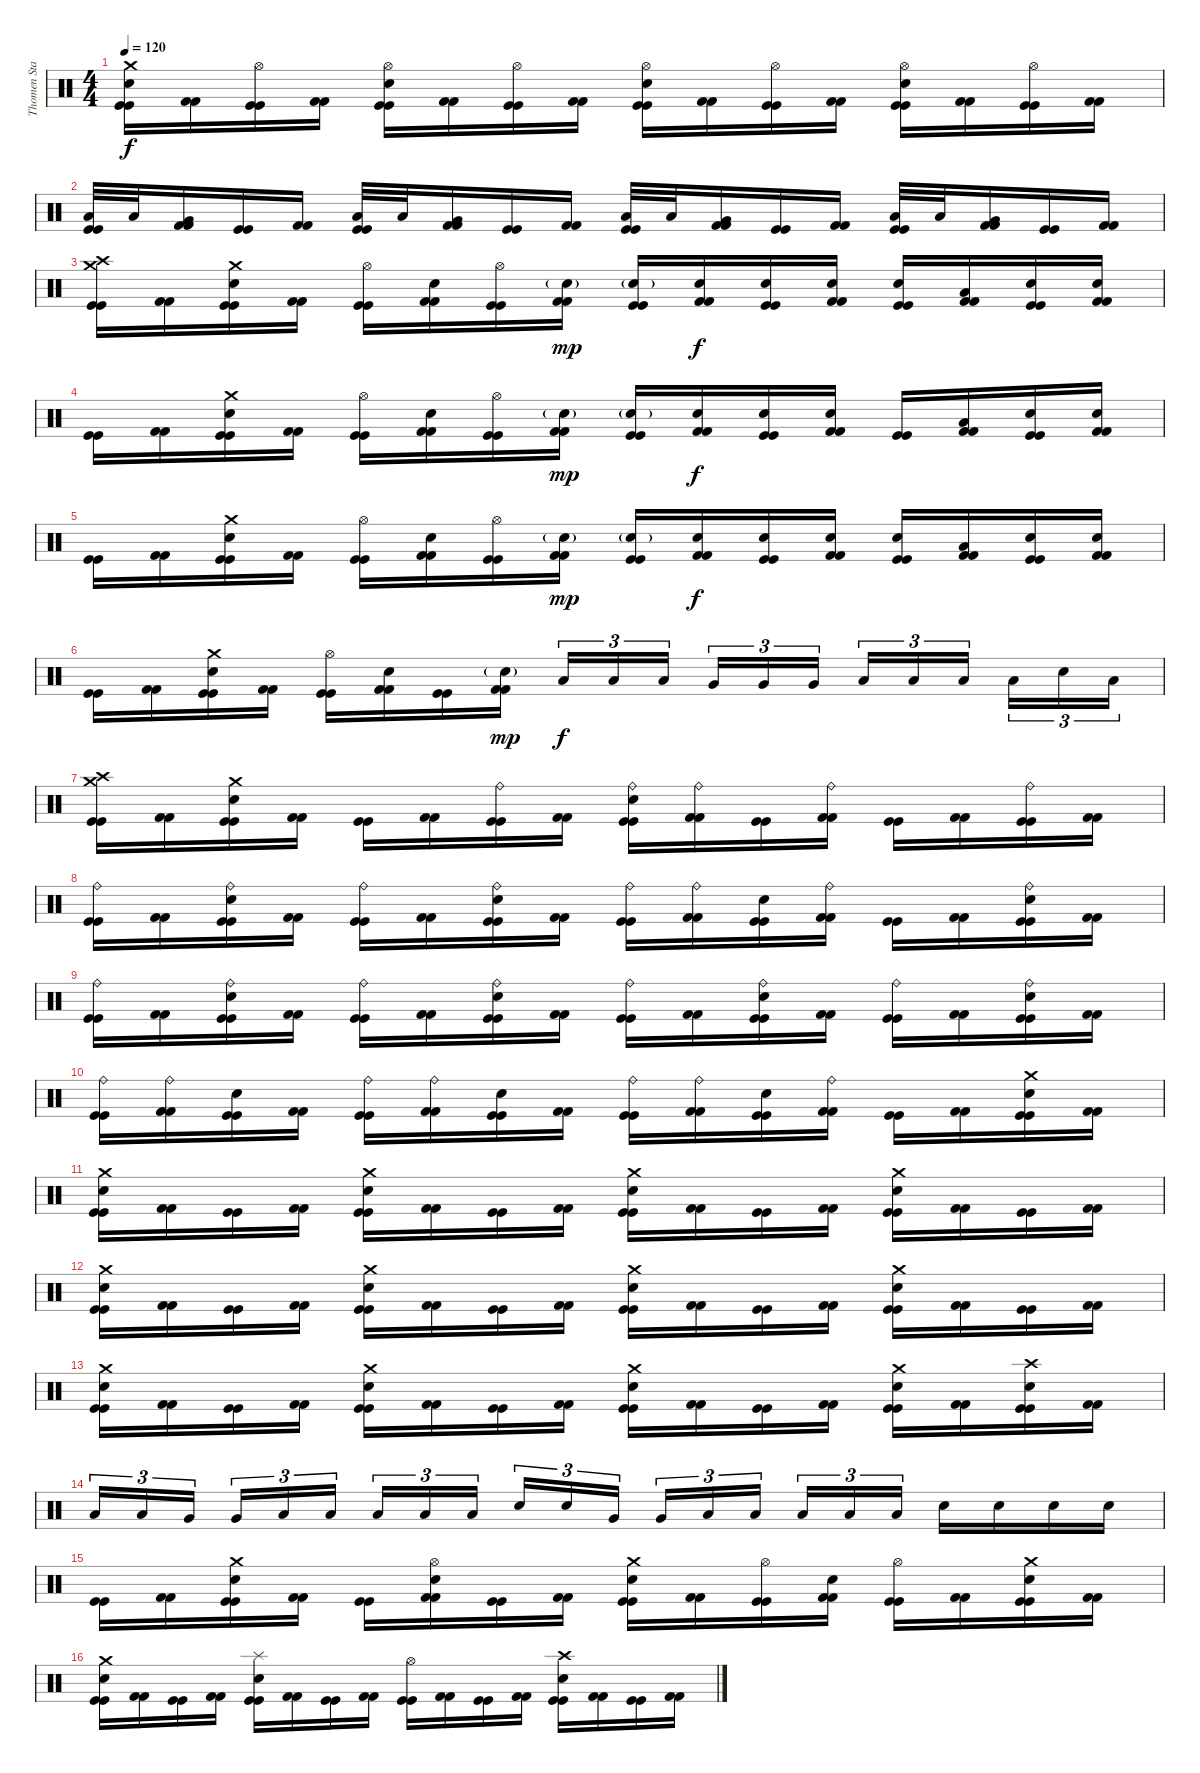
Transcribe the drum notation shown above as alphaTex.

\track ("Thomen Stauch" "Thomen Sta") {instrument percussion}
\staff {score}
\articulation defaults
\ts (4 4)
\tempo 120
\clef neutral
\ks c
("Crash medium (hit)" "Snare (hit) 2" "Kick (hit)" "Kick (hit)").16{dy f} ("Kick (hit) 2" "Kick (hit) 2").16 ("Hi-Hat (open)" "Kick (hit)" "Kick (hit)").16 ("Kick (hit) 2" "Kick (hit) 2").16 ("Hi-Hat (open)" "Snare (hit) 2" "Kick (hit)" "Kick (hit)").16 ("Kick (hit) 2" "Kick (hit) 2").16 ("Hi-Hat (open)" "Kick (hit)" "Kick (hit)").16 ("Kick (hit) 2" "Kick (hit) 2").16 ("Hi-Hat (open)" "Snare (hit) 2" "Kick (hit)" "Kick (hit)").16 ("Kick (hit) 2" "Kick (hit) 2").16 ("Hi-Hat (open)" "Kick (hit)" "Kick (hit)").16 ("Kick (hit) 2" "Kick (hit) 2").16 ("Hi-Hat (open)" "Snare (hit) 2" "Kick (hit)" "Kick (hit)").16 ("Kick (hit) 2" "Kick (hit) 2").16 ("Hi-Hat (open)" "Kick (hit)" "Kick (hit)").16 ("Kick (hit) 2" "Kick (hit) 2").16 |
("Low Tom (hit)" "Kick (hit)" "Kick (hit)").32 "Low Tom (hit)".32 ("Very Low Tom (hit)" "Kick (hit) 2" "Kick (hit) 2").16 ("Kick (hit)" "Kick (hit)").16 ("Kick (hit) 2" "Kick (hit) 2").16 ("Low Tom (hit)" "Kick (hit)" "Kick (hit)").32 "Low Tom (hit)".32 ("Very Low Tom (hit)" "Kick (hit) 2" "Kick (hit) 2").16 ("Kick (hit)" "Kick (hit)").16 ("Kick (hit) 2" "Kick (hit) 2").16 ("Low Tom (hit)" "Kick (hit)" "Kick (hit)").32 "Low Tom (hit)".32 ("Very Low Tom (hit)" "Kick (hit) 2" "Kick (hit) 2").16 ("Kick (hit)" "Kick (hit)").16 ("Kick (hit) 2" "Kick (hit) 2").16 ("Low Tom (hit)" "Kick (hit)" "Kick (hit)").32 "Low Tom (hit)".32 ("Very Low Tom (hit)" "Kick (hit) 2" "Kick (hit) 2").16 ("Kick (hit)" "Kick (hit)").16 ("Kick (hit) 2" "Kick (hit) 2").16 |
("Crash medium (hit)" "Crash high (hit)" "Kick (hit)" "Kick (hit)").16 ("Kick (hit) 2" "Kick (hit) 2").16 ("Crash medium (hit)" "Snare (hit) 2" "Kick (hit)" "Kick (hit)").16 ("Kick (hit) 2" "Kick (hit) 2").16 ("Hi-Hat (open)" "Kick (hit)" "Kick (hit)").16 ("Snare (hit) 2" "Kick (hit) 2" "Kick (hit) 2").16 ("Hi-Hat (open)" "Kick (hit)" "Kick (hit)").16 ("Snare (hit) 2"{g} "Kick (hit) 2" "Kick (hit) 2").16{dy mp} ("Snare (hit) 2"{g} "Kick (hit)" "Kick (hit)").16 ("Snare (hit) 2" "Kick (hit) 2" "Kick (hit) 2").16{dy f} ("Snare (hit) 2" "Kick (hit)" "Kick (hit)").16 ("Snare (hit) 2" "Kick (hit) 2" "Kick (hit) 2").16 ("Snare (hit) 2" "Kick (hit)" "Kick (hit)").16 ("Low Tom (hit)" "Kick (hit) 2" "Kick (hit) 2").16 ("Snare (hit) 2" "Kick (hit)" "Kick (hit)").16 ("Snare (hit) 2" "Kick (hit) 2" "Kick (hit) 2").16 |
("Kick (hit)" "Kick (hit)").16 ("Kick (hit) 2" "Kick (hit) 2").16 ("Crash medium (hit)" "Snare (hit) 2" "Kick (hit)" "Kick (hit)").16 ("Kick (hit) 2" "Kick (hit) 2").16 ("Hi-Hat (open)" "Kick (hit)" "Kick (hit)").16 ("Snare (hit) 2" "Kick (hit) 2" "Kick (hit) 2").16 ("Hi-Hat (open)" "Kick (hit)" "Kick (hit)").16 ("Snare (hit) 2"{g} "Kick (hit) 2" "Kick (hit) 2").16{dy mp} ("Snare (hit) 2"{g} "Kick (hit)" "Kick (hit)").16 ("Snare (hit) 2" "Kick (hit) 2" "Kick (hit) 2").16{dy f} ("Snare (hit) 2" "Kick (hit)" "Kick (hit)").16 ("Snare (hit) 2" "Kick (hit) 2" "Kick (hit) 2").16 ("Kick (hit)" "Kick (hit)").16 ("Low Tom (hit)" "Kick (hit) 2" "Kick (hit) 2").16 ("Snare (hit) 2" "Kick (hit)" "Kick (hit)").16 ("Snare (hit) 2" "Kick (hit) 2" "Kick (hit) 2").16 |
("Kick (hit)" "Kick (hit)").16 ("Kick (hit) 2" "Kick (hit) 2").16 ("Crash medium (hit)" "Snare (hit) 2" "Kick (hit)" "Kick (hit)").16 ("Kick (hit) 2" "Kick (hit) 2").16 ("Hi-Hat (open)" "Kick (hit)" "Kick (hit)").16 ("Snare (hit) 2" "Kick (hit) 2" "Kick (hit) 2").16 ("Hi-Hat (open)" "Kick (hit)" "Kick (hit)").16 ("Snare (hit) 2"{g} "Kick (hit) 2" "Kick (hit) 2").16{dy mp} ("Snare (hit) 2"{g} "Kick (hit)" "Kick (hit)").16 ("Snare (hit) 2" "Kick (hit) 2" "Kick (hit) 2").16{dy f} ("Snare (hit) 2" "Kick (hit)" "Kick (hit)").16 ("Snare (hit) 2" "Kick (hit) 2" "Kick (hit) 2").16 ("Snare (hit) 2" "Kick (hit)" "Kick (hit)").16 ("Low Tom (hit)" "Kick (hit) 2" "Kick (hit) 2").16 ("Snare (hit) 2" "Kick (hit)" "Kick (hit)").16 ("Snare (hit) 2" "Kick (hit) 2" "Kick (hit) 2").16 |
("Kick (hit)" "Kick (hit)").16 ("Kick (hit) 2" "Kick (hit) 2").16 ("Crash medium (hit)" "Snare (hit) 2" "Kick (hit)" "Kick (hit)").16 ("Kick (hit) 2" "Kick (hit) 2").16 ("Hi-Hat (open)" "Kick (hit)" "Kick (hit)").16 ("Snare (hit) 2" "Kick (hit) 2" "Kick (hit) 2").16 ("Kick (hit)" "Kick (hit)").16 ("Snare (hit) 2"{g} "Kick (hit) 2" "Kick (hit) 2").16{dy mp} "Low Tom (hit)".16{tu (3 2) dy f} "Low Tom (hit)".16{tu (3 2)} "Low Tom (hit)".16{tu (3 2)} "Very Low Tom (hit)".16{tu (3 2)} "Very Low Tom (hit)".16{tu (3 2)} "Very Low Tom (hit)".16{tu (3 2)} "Low Floor Tom (hit)".16{tu (3 2)} "Low Floor Tom (hit)".16{tu (3 2)} "Low Floor Tom (hit)".16{tu (3 2)} "Low Floor Tom (hit)".16{tu (3 2)} "Snare (hit) 2".16{tu (3 2)} "Low Floor Tom (hit)".16{tu (3 2)} |
("Crash medium (hit)" "Crash high (hit)" "Kick (hit)" "Kick (hit)").16 ("Kick (hit) 2" "Kick (hit) 2").16 ("Crash medium (hit)" "Snare (hit) 2" "Kick (hit)" "Kick (hit)").16 ("Kick (hit) 2" "Kick (hit) 2").16 ("Kick (hit)" "Kick (hit)").16 ("Kick (hit) 2" "Kick (hit) 2").16 ("Ride (bell)" "Kick (hit)" "Kick (hit)").16 ("Kick (hit) 2" "Kick (hit) 2").16 ("Ride (bell)" "Snare (hit) 2" "Kick (hit)" "Kick (hit)").16 ("Ride (bell)" "Kick (hit) 2" "Kick (hit) 2").16 ("Kick (hit)" "Kick (hit)").16 ("Ride (bell)" "Kick (hit) 2" "Kick (hit) 2").16 ("Kick (hit)" "Kick (hit)").16 ("Kick (hit) 2" "Kick (hit) 2").16 ("Ride (bell)" "Kick (hit)" "Kick (hit)").16 ("Kick (hit) 2" "Kick (hit) 2").16 |
("Ride (bell)" "Kick (hit)" "Kick (hit)").16 ("Kick (hit) 2" "Kick (hit) 2").16 ("Ride (bell)" "Snare (hit) 2" "Kick (hit)" "Kick (hit)").16 ("Kick (hit) 2" "Kick (hit) 2").16 ("Ride (bell)" "Kick (hit)" "Kick (hit)").16 ("Kick (hit) 2" "Kick (hit) 2").16 ("Ride (bell)" "Snare (hit) 2" "Kick (hit)" "Kick (hit)").16 ("Kick (hit) 2" "Kick (hit) 2").16 ("Ride (bell)" "Kick (hit)" "Kick (hit)").16 ("Ride (bell)" "Kick (hit) 2" "Kick (hit) 2").16 ("Snare (hit) 2" "Kick (hit)" "Kick (hit)").16 ("Ride (bell)" "Kick (hit) 2" "Kick (hit) 2").16 ("Kick (hit)" "Kick (hit)").16 ("Kick (hit) 2" "Kick (hit) 2").16 ("Ride (bell)" "Snare (hit) 2" "Kick (hit)" "Kick (hit)").16 ("Kick (hit) 2" "Kick (hit) 2").16 |
("Ride (bell)" "Kick (hit)" "Kick (hit)").16 ("Kick (hit) 2" "Kick (hit) 2").16 ("Ride (bell)" "Snare (hit) 2" "Kick (hit)" "Kick (hit)").16 ("Kick (hit) 2" "Kick (hit) 2").16 ("Ride (bell)" "Kick (hit)" "Kick (hit)").16 ("Kick (hit) 2" "Kick (hit) 2").16 ("Ride (bell)" "Snare (hit) 2" "Kick (hit)" "Kick (hit)").16 ("Kick (hit) 2" "Kick (hit) 2").16 ("Ride (bell)" "Kick (hit)" "Kick (hit)").16 ("Kick (hit) 2" "Kick (hit) 2").16 ("Ride (bell)" "Snare (hit) 2" "Kick (hit)" "Kick (hit)").16 ("Kick (hit) 2" "Kick (hit) 2").16 ("Ride (bell)" "Kick (hit)" "Kick (hit)").16 ("Kick (hit) 2" "Kick (hit) 2").16 ("Ride (bell)" "Snare (hit) 2" "Kick (hit)" "Kick (hit)").16 ("Kick (hit) 2" "Kick (hit) 2").16 |
("Ride (bell)" "Kick (hit)" "Kick (hit)").16 ("Ride (bell)" "Kick (hit) 2" "Kick (hit) 2").16 ("Snare (hit) 2" "Kick (hit)" "Kick (hit)").16 ("Kick (hit) 2" "Kick (hit) 2").16 ("Ride (bell)" "Kick (hit)" "Kick (hit)").16 ("Ride (bell)" "Kick (hit) 2" "Kick (hit) 2").16 ("Snare (hit) 2" "Kick (hit)" "Kick (hit)").16 ("Kick (hit) 2" "Kick (hit) 2").16 ("Ride (bell)" "Kick (hit)" "Kick (hit)").16 ("Ride (bell)" "Kick (hit) 2" "Kick (hit) 2").16 ("Snare (hit) 2" "Kick (hit)" "Kick (hit)").16 ("Ride (bell)" "Kick (hit) 2" "Kick (hit) 2").16 ("Kick (hit)" "Kick (hit)").16 ("Kick (hit) 2" "Kick (hit) 2").16 ("Crash medium (hit)" "Snare (hit) 2" "Kick (hit)" "Kick (hit)").16 ("Kick (hit) 2" "Kick (hit) 2").16 |
("Crash medium (hit)" "Snare (hit) 2" "Kick (hit)" "Kick (hit)").16 ("Kick (hit) 2" "Kick (hit) 2").16 ("Kick (hit)" "Kick (hit)").16 ("Kick (hit) 2" "Kick (hit) 2").16 ("Crash medium (hit)" "Snare (hit) 2" "Kick (hit)" "Kick (hit)").16 ("Kick (hit) 2" "Kick (hit) 2").16 ("Kick (hit)" "Kick (hit)").16 ("Kick (hit) 2" "Kick (hit) 2").16 ("Crash medium (hit)" "Snare (hit) 2" "Kick (hit)" "Kick (hit)").16 ("Kick (hit) 2" "Kick (hit) 2").16 ("Kick (hit)" "Kick (hit)").16 ("Kick (hit) 2" "Kick (hit) 2").16 ("Crash medium (hit)" "Snare (hit) 2" "Kick (hit)" "Kick (hit)").16 ("Kick (hit) 2" "Kick (hit) 2").16 ("Kick (hit)" "Kick (hit)").16 ("Kick (hit) 2" "Kick (hit) 2").16 |
("Crash medium (hit)" "Snare (hit) 2" "Kick (hit)" "Kick (hit)").16 ("Kick (hit) 2" "Kick (hit) 2").16 ("Kick (hit)" "Kick (hit)").16 ("Kick (hit) 2" "Kick (hit) 2").16 ("Crash medium (hit)" "Snare (hit) 2" "Kick (hit)" "Kick (hit)").16 ("Kick (hit) 2" "Kick (hit) 2").16 ("Kick (hit)" "Kick (hit)").16 ("Kick (hit) 2" "Kick (hit) 2").16 ("Crash medium (hit)" "Snare (hit) 2" "Kick (hit)" "Kick (hit)").16 ("Kick (hit) 2" "Kick (hit) 2").16 ("Kick (hit)" "Kick (hit)").16 ("Kick (hit) 2" "Kick (hit) 2").16 ("Crash medium (hit)" "Snare (hit) 2" "Kick (hit)" "Kick (hit)").16 ("Kick (hit) 2" "Kick (hit) 2").16 ("Kick (hit)" "Kick (hit)").16 ("Kick (hit) 2" "Kick (hit) 2").16 |
("Crash medium (hit)" "Snare (hit) 2" "Kick (hit)" "Kick (hit)").16 ("Kick (hit) 2" "Kick (hit) 2").16 ("Kick (hit)" "Kick (hit)").16 ("Kick (hit) 2" "Kick (hit) 2").16 ("Crash medium (hit)" "Snare (hit) 2" "Kick (hit)" "Kick (hit)").16 ("Kick (hit) 2" "Kick (hit) 2").16 ("Kick (hit)" "Kick (hit)").16 ("Kick (hit) 2" "Kick (hit) 2").16 ("Crash medium (hit)" "Snare (hit) 2" "Kick (hit)" "Kick (hit)").16 ("Kick (hit) 2" "Kick (hit) 2").16 ("Kick (hit)" "Kick (hit)").16 ("Kick (hit) 2" "Kick (hit) 2").16 ("Crash medium (hit)" "Snare (hit) 2" "Kick (hit)" "Kick (hit)").16 ("Kick (hit) 2" "Kick (hit) 2").16 ("Crash high (hit)" "Snare (hit) 2" "Kick (hit)" "Kick (hit)").16 ("Kick (hit) 2" "Kick (hit) 2").16 |
"Low Tom (hit)".16{tu (3 2)} "Low Tom (hit)".16{tu (3 2)} "Very Low Tom (hit)".16{tu (3 2)} "Very Low Tom (hit)".16{tu (3 2)} "Low Floor Tom (hit)".16{tu (3 2)} "Low Floor Tom (hit)".16{tu (3 2)} "Low Floor Tom (hit)".16{tu (3 2)} "Low Floor Tom (hit)".16{tu (3 2)} "Low Floor Tom (hit)".16{tu (3 2)} "Snare (hit) 2".16{tu (3 2)} "Snare (hit) 2".16{tu (3 2)} "Very Low Tom (hit)".16{tu (3 2)} "Very Low Tom (hit)".16{tu (3 2)} "Low Floor Tom (hit)".16{tu (3 2)} "Low Floor Tom (hit)".16{tu (3 2)} "Low Floor Tom (hit)".16{tu (3 2)} "Low Floor Tom (hit)".16{tu (3 2)} "Low Floor Tom (hit)".16{tu (3 2)} "Snare (hit) 2".16 "Snare (hit) 2".16 "Snare (hit) 2".16 "Snare (hit) 2".16 |
("Kick (hit)" "Kick (hit)").16 ("Kick (hit) 2" "Kick (hit) 2").16 ("Crash medium (hit)" "Snare (hit) 2" "Kick (hit)" "Kick (hit)").16 ("Kick (hit) 2" "Kick (hit) 2").16 ("Kick (hit)" "Kick (hit)").16 ("Hi-Hat (open)" "Snare (hit) 2" "Kick (hit) 2" "Kick (hit) 2").16 ("Kick (hit)" "Kick (hit)").16 ("Kick (hit) 2" "Kick (hit) 2").16 ("Crash medium (hit)" "Snare (hit) 2" "Kick (hit)" "Kick (hit)").16 ("Kick (hit) 2" "Kick (hit) 2").16 ("Hi-Hat (open)" "Kick (hit)" "Kick (hit)").16 ("Snare (hit) 2" "Kick (hit) 2" "Kick (hit) 2").16 ("Hi-Hat (open)" "Kick (hit)" "Kick (hit)").16 ("Kick (hit) 2" "Kick (hit) 2").16 ("Crash medium (hit)" "Snare (hit) 2" "Kick (hit)" "Kick (hit)").16 ("Kick (hit) 2" "Kick (hit) 2").16 |
("Crash medium (hit)" "Snare (hit) 2" "Kick (hit)" "Kick (hit)").16 ("Kick (hit) 2" "Kick (hit) 2").16 ("Kick (hit)" "Kick (hit)").16 ("Kick (hit) 2" "Kick (hit) 2").16 ("Splash (hit)" "Snare (hit) 2" "Kick (hit)" "Kick (hit)").16 ("Kick (hit) 2" "Kick (hit) 2").16 ("Kick (hit)" "Kick (hit)").16 ("Kick (hit) 2" "Kick (hit) 2").16 ("Hi-Hat (open)" "Kick (hit)" "Kick (hit)").16 ("Kick (hit) 2" "Kick (hit) 2").16 ("Kick (hit)" "Kick (hit)").16 ("Kick (hit) 2" "Kick (hit) 2").16 ("Crash high (hit)" "Snare (hit) 2" "Kick (hit)" "Kick (hit)").16 ("Kick (hit) 2" "Kick (hit) 2").16 ("Kick (hit)" "Kick (hit)").16 ("Kick (hit) 2" "Kick (hit) 2").16
